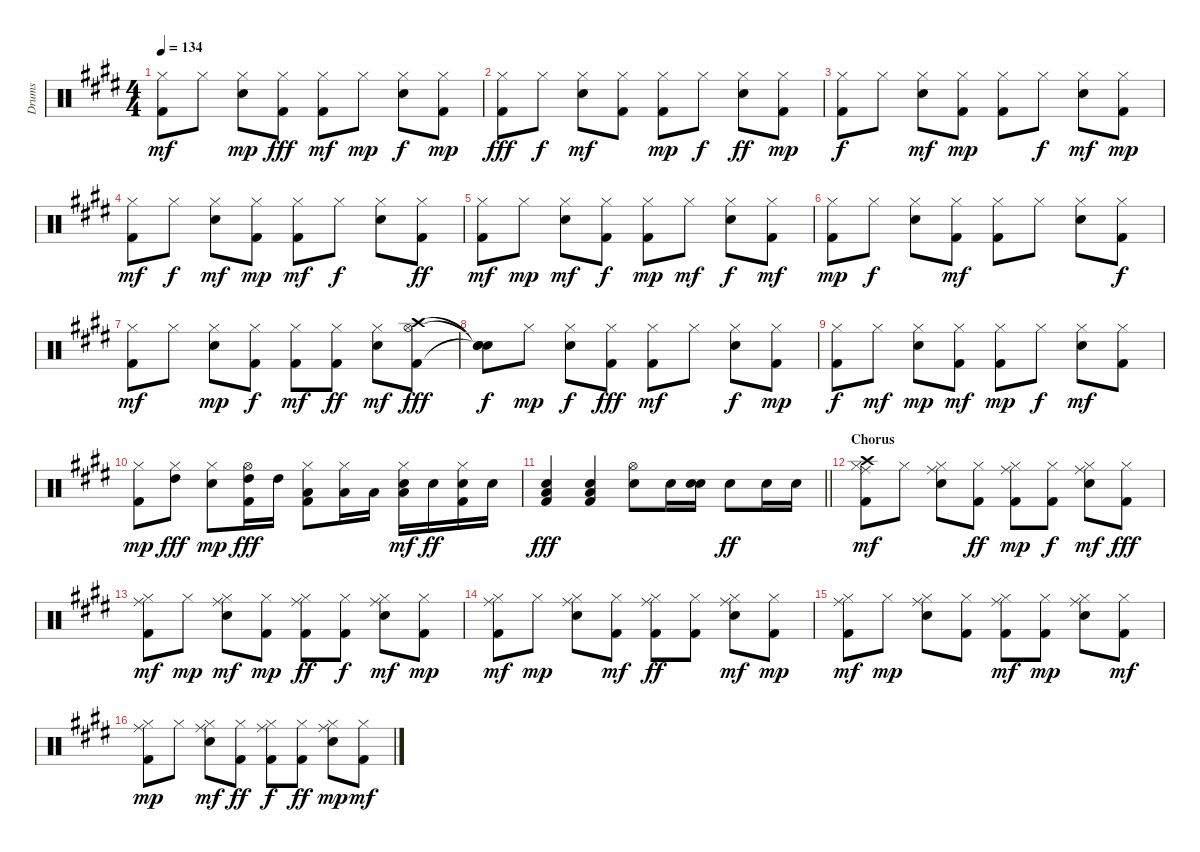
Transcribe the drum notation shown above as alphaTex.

\track ("Drums" "Drums") {instrument percussion}
\staff {score}
\articulation defaults
\ts (4 4)
\tempo 134
\clef neutral
\ks e
("Kick (hit) 2" "Hi-Hat (closed)").8{dy mf} "Hi-Hat (closed)".8 ("Snare (hit) 2" "Hi-Hat (closed)").8{dy mp} ("Kick (hit) 2" "Hi-Hat (closed)").8{dy fff} ("Kick (hit) 2" "Hi-Hat (closed)").8{dy mf} "Hi-Hat (closed)".8{dy mp} ("Snare (hit) 2" "Hi-Hat (closed)").8{dy f} ("Kick (hit) 2" "Hi-Hat (closed)").8{dy mp} |
("Kick (hit) 2" "Hi-Hat (closed)").8{dy fff} "Hi-Hat (closed)".8{dy f} ("Snare (hit) 2" "Hi-Hat (closed)").8{dy mf} ("Kick (hit) 2" "Hi-Hat (closed)").8 ("Kick (hit) 2" "Hi-Hat (closed)").8{dy mp} "Hi-Hat (closed)".8{dy f} ("Snare (hit) 2" "Hi-Hat (closed)").8{dy ff} ("Kick (hit) 2" "Hi-Hat (closed)").8{dy mp} |
("Kick (hit) 2" "Hi-Hat (closed)").8{dy f} "Hi-Hat (closed)".8 ("Snare (hit) 2" "Hi-Hat (closed)").8{dy mf} ("Kick (hit) 2" "Hi-Hat (closed)").8{dy mp} ("Kick (hit) 2" "Hi-Hat (closed)").8 "Hi-Hat (closed)".8{dy f} ("Snare (hit) 2" "Hi-Hat (closed)").8{dy mf} ("Kick (hit) 2" "Hi-Hat (closed)").8{dy mp} |
("Kick (hit) 2" "Hi-Hat (closed)").8{dy mf} "Hi-Hat (closed)".8{dy f} ("Snare (hit) 2" "Hi-Hat (closed)").8{dy mf} ("Kick (hit) 2" "Hi-Hat (closed)").8{dy mp} ("Kick (hit) 2" "Hi-Hat (closed)").8{dy mf} "Hi-Hat (closed)".8{dy f} ("Snare (hit) 2" "Hi-Hat (closed)").8 ("Kick (hit) 2" "Hi-Hat (closed)").8{dy ff} |
("Kick (hit) 2" "Hi-Hat (closed)").8{dy mf} "Hi-Hat (closed)".8{dy mp} ("Snare (hit) 2" "Hi-Hat (closed)").8{dy mf} ("Kick (hit) 2" "Hi-Hat (closed)").8{dy f} ("Kick (hit) 2" "Hi-Hat (closed)").8{dy mp} "Hi-Hat (closed)".8{dy mf} ("Snare (hit) 2" "Hi-Hat (closed)").8{dy f} ("Kick (hit) 2" "Hi-Hat (closed)").8{dy mf} |
("Kick (hit) 2" "Hi-Hat (closed)").8{dy mp} "Hi-Hat (closed)".8{dy f} ("Snare (hit) 2" "Hi-Hat (closed)").8 ("Kick (hit) 2" "Hi-Hat (closed)").8{dy mf} ("Kick (hit) 2" "Hi-Hat (closed)").8 "Hi-Hat (closed)".8 ("Snare (hit) 2" "Hi-Hat (closed)").8 ("Kick (hit) 2" "Hi-Hat (closed)").8{dy f} |
("Kick (hit) 2" "Hi-Hat (closed)").8{dy mf} "Hi-Hat (closed)".8 ("Snare (hit) 2" "Hi-Hat (closed)").8{dy mp} ("Kick (hit) 2" "Hi-Hat (closed)").8{dy f} ("Kick (hit) 2" "Hi-Hat (closed)").8{dy mf} ("Kick (hit) 2" "Hi-Hat (closed)").8{dy ff} ("Snare (hit) 2" "Hi-Hat (closed)").8{dy mf} ("Kick (hit) 2" "Hi-Hat (open)" "Crash high (hit)").8{dy fff} |
("Snare (hit)"{t} "Snare (hit)"{t} "Snare (hit)"{t}).8{dy f} "Hi-Hat (closed)".8{dy mp} ("Snare (hit) 2" "Hi-Hat (closed)").8{dy f} ("Kick (hit) 2" "Hi-Hat (closed)").8{dy fff} ("Kick (hit) 2" "Hi-Hat (closed)").8{dy mf} "Hi-Hat (closed)".8 ("Snare (hit) 2" "Hi-Hat (closed)").8{dy f} ("Kick (hit) 2" "Hi-Hat (closed)").8{dy mp} |
("Kick (hit) 2" "Hi-Hat (closed)").8{dy f} "Hi-Hat (closed)".8{dy mf} ("Snare (hit) 2" "Hi-Hat (closed)").8{dy mp} ("Kick (hit) 2" "Hi-Hat (closed)").8{dy mf} ("Kick (hit) 2" "Hi-Hat (closed)").8{dy mp} "Hi-Hat (closed)".8{dy f} ("Snare (hit) 2" "Hi-Hat (closed)").8{dy mf} ("Kick (hit) 2" "Hi-Hat (closed)").8 |
("Kick (hit) 2" "Hi-Hat (closed)").8{dy mp} ("Hi-Hat (closed)" "High Tom (hit)").8{dy fff} ("Snare (hit) 2" "Hi-Hat (closed)").8{dy mp} ("Kick (hit) 2" "Hi-Hat (open)" "High Tom (hit)").16{dy fff} "High Tom (hit)".16 ("Kick (hit) 2" "Hi-Hat (closed)" "Low Tom (hit)").8 ("Hi-Hat (closed)" "Low Tom (hit)").16 "Low Tom (hit)".16 ("Snare (hit) 2" "Low Floor Tom (hit)" "Hi-Hat (closed)").16{dy mf} "Snare (hit) 2".16{dy ff} ("Kick (hit) 2" "Snare (hit) 2" "Hi-Hat (closed)").16 "Snare (hit) 2".16 |
\barLineRight lightlight
("Kick (hit) 2" "Snare (hit) 2" "Low Tom (hit)").4{dy fff} ("Kick (hit) 2" "Snare (hit) 2" "Low Floor Tom (hit)").4 ("Snare (hit) 2" "Hi-Hat (open)").8 "Snare (hit) 2".16 ("Snare (hit) 2" "Snare (hit) 2").16 "Snare (hit) 2".8{dy ff} "Snare (hit) 2".16 "Snare (hit) 2".16 |
\section ("" "Chorus")
("Kick (hit) 2" "Hi-Hat (closed)" "Crash high (hit)" "Ride (middle)").8{dy mf} "Hi-Hat (closed)".8 ("Snare (hit) 2" "Hi-Hat (closed)" "Ride (middle)").8 ("Kick (hit) 2" "Hi-Hat (closed)").8{dy ff} ("Kick (hit) 2" "Hi-Hat (closed)" "Ride (middle)").8{dy mp} ("Kick (hit) 2" "Hi-Hat (closed)").8{dy f} ("Snare (hit) 2" "Hi-Hat (closed)" "Ride (middle)").8{dy mf} ("Kick (hit) 2" "Hi-Hat (closed)").8{dy fff} |
("Kick (hit) 2" "Hi-Hat (closed)" "Ride (middle)").8{dy mf} "Hi-Hat (closed)".8{dy mp} ("Snare (hit) 2" "Hi-Hat (closed)" "Ride (middle)").8{dy mf} ("Kick (hit) 2" "Hi-Hat (closed)").8{dy mp} ("Kick (hit) 2" "Hi-Hat (closed)" "Ride (middle)").8{dy ff} ("Kick (hit) 2" "Hi-Hat (closed)").8{dy f} ("Snare (hit) 2" "Hi-Hat (closed)" "Ride (middle)").8{dy mf} ("Kick (hit) 2" "Hi-Hat (closed)").8{dy mp} |
("Kick (hit) 2" "Hi-Hat (closed)" "Ride (middle)").8{dy mf} "Hi-Hat (closed)".8{dy mp} ("Snare (hit) 2" "Hi-Hat (closed)" "Ride (middle)").8 ("Kick (hit) 2" "Hi-Hat (closed)").8{dy mf} ("Kick (hit) 2" "Hi-Hat (closed)" "Ride (middle)").8{dy ff} ("Kick (hit) 2" "Hi-Hat (closed)").8 ("Snare (hit) 2" "Hi-Hat (closed)" "Ride (middle)").8{dy mf} ("Kick (hit) 2" "Hi-Hat (closed)").8{dy mp} |
("Kick (hit) 2" "Hi-Hat (closed)" "Ride (middle)").8{dy mf} "Hi-Hat (closed)".8{dy mp} ("Snare (hit) 2" "Hi-Hat (closed)" "Ride (middle)").8 ("Kick (hit) 2" "Hi-Hat (closed)").8 ("Kick (hit) 2" "Hi-Hat (closed)" "Ride (middle)").8{dy mf} ("Kick (hit) 2" "Hi-Hat (closed)").8{dy mp} ("Snare (hit) 2" "Hi-Hat (closed)" "Ride (middle)").8 ("Kick (hit) 2" "Hi-Hat (closed)").8{dy mf} |
("Kick (hit) 2" "Hi-Hat (closed)" "Ride (middle)").8{dy mp} "Hi-Hat (closed)".8 ("Snare (hit) 2" "Hi-Hat (closed)" "Ride (middle)").8{dy mf} ("Kick (hit) 2" "Hi-Hat (closed)").8{dy ff} ("Kick (hit) 2" "Hi-Hat (closed)" "Ride (middle)").8{dy f} ("Kick (hit) 2" "Hi-Hat (closed)").8{dy ff} ("Snare (hit) 2" "Hi-Hat (closed)" "Ride (middle)").8{dy mp} ("Kick (hit) 2" "Hi-Hat (closed)").8{dy mf}
